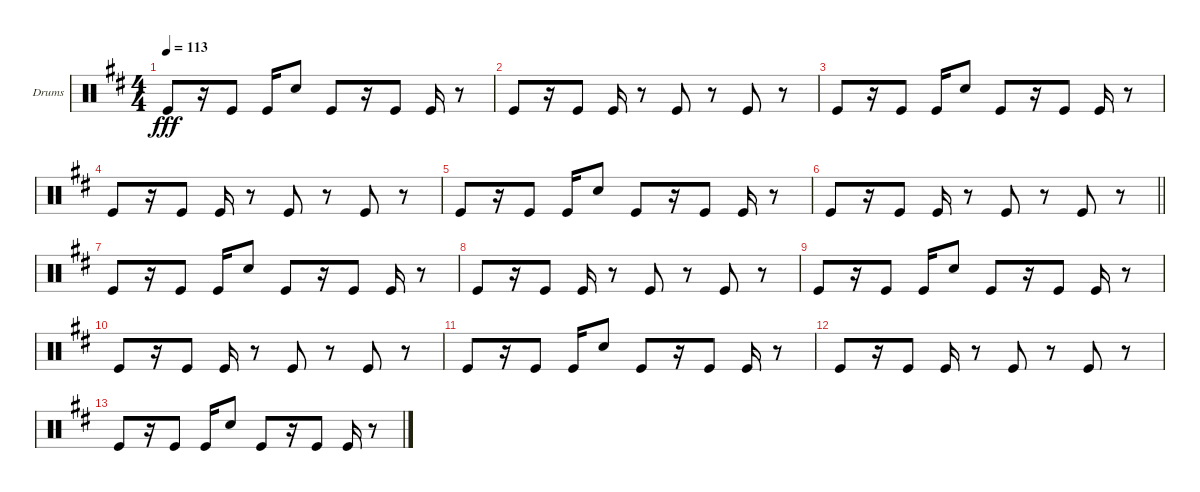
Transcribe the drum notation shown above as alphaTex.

\bracketExtendMode groupsimilarinstruments
\firstSystemTrackNameOrientation horizontal
\otherSystemsTrackNameOrientation horizontal
\track ("Kick" "Drums") {instrument percussion}
\staff {score}
\articulation defaults
\ts (4 4)
\tempo 113
\clef neutral
\scale
0.333333
\ks d "Kick (hit)".8{dy fff}
r.16 "Kick (hit)".8 "Kick (hit)".16 "Snare (hit) 2".8 "Kick (hit)".8 r.16 "Kick (hit)".8 "Kick (hit)".16 r.8 |
\scale
0.333333 "Kick (hit)".8 r.16 "Kick (hit)".8 "Kick (hit)".16 r.8 "Kick (hit)".8 r.8 "Kick (hit)".8 r.8 |
\scale
0.333333 "Kick (hit)".8 r.16 "Kick (hit)".8 "Kick (hit)".16 "Snare (hit) 2".8 "Kick (hit)".8 r.16 "Kick (hit)".8 "Kick (hit)".16 r.8 |
\scale
0.333333 "Kick (hit)".8 r.16 "Kick (hit)".8 "Kick (hit)".16 r.8 "Kick (hit)".8 r.8 "Kick (hit)".8 r.8 |
\scale
0.333333 "Kick (hit)".8 r.16 "Kick (hit)".8 "Kick (hit)".16 "Snare (hit) 2".8 "Kick (hit)".8 r.16 "Kick (hit)".8 "Kick (hit)".16 r.8 |
\scale
0.333333
\barLineRight lightlight "Kick (hit)".8
r.16 "Kick (hit)".8 "Kick (hit)".16 r.8 "Kick (hit)".8 r.8 "Kick (hit)".8 r.8 |
\scale
0.333333 "Kick (hit)".8 r.16 "Kick (hit)".8 "Kick (hit)".16 "Snare (hit) 2".8 "Kick (hit)".8 r.16 "Kick (hit)".8 "Kick (hit)".16 r.8 |
\scale
0.333333 "Kick (hit)".8 r.16 "Kick (hit)".8 "Kick (hit)".16 r.8 "Kick (hit)".8 r.8 "Kick (hit)".8 r.8 |
\scale
0.333333 "Kick (hit)".8 r.16 "Kick (hit)".8 "Kick (hit)".16 "Snare (hit) 2".8 "Kick (hit)".8 r.16 "Kick (hit)".8 "Kick (hit)".16 r.8 |
\scale
0.333333 "Kick (hit)".8 r.16 "Kick (hit)".8 "Kick (hit)".16 r.8 "Kick (hit)".8 r.8 "Kick (hit)".8 r.8 |
\scale
0.333333 "Kick (hit)".8 r.16 "Kick (hit)".8 "Kick (hit)".16 "Snare (hit) 2".8 "Kick (hit)".8 r.16 "Kick (hit)".8 "Kick (hit)".16 r.8 |
"Kick (hit)".8 r.16 "Kick (hit)".8 "Kick (hit)".16 r.8 "Kick (hit)".8 r.8 "Kick (hit)".8 r.8 |
"Kick (hit)".8 r.16 "Kick (hit)".8 "Kick (hit)".16 "Snare (hit) 2".8 "Kick (hit)".8 r.16 "Kick (hit)".8 "Kick (hit)".16 r.8
